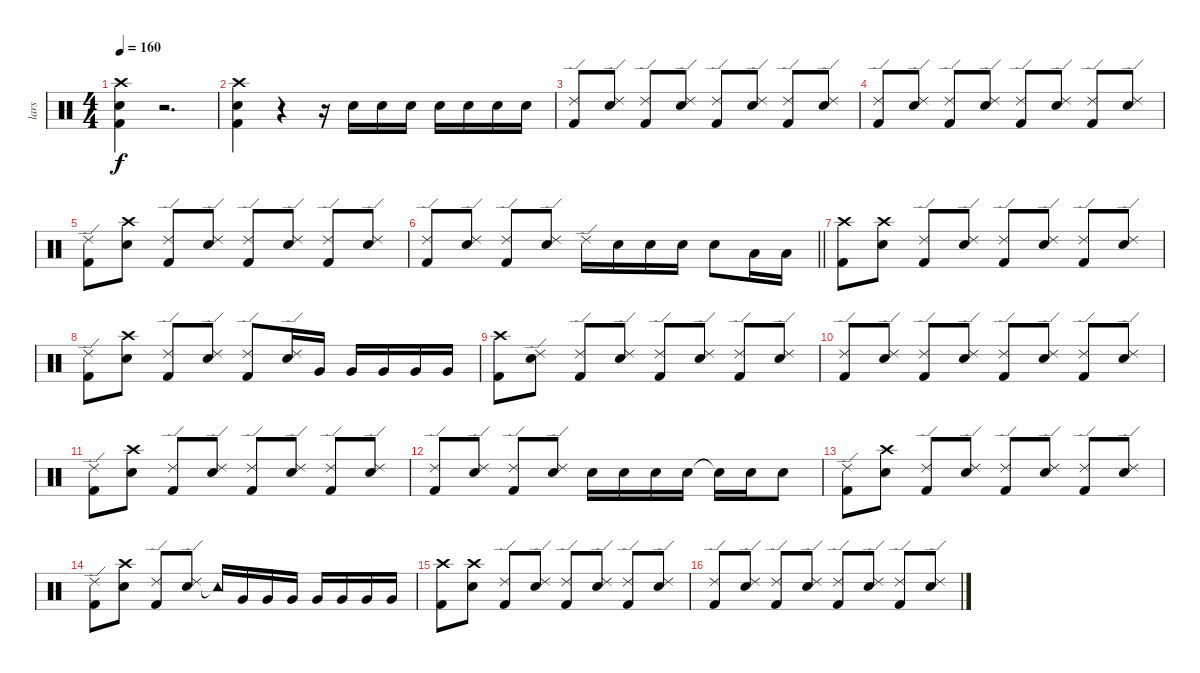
\track ("lars" "lars") {instrument percussion}
\staff {score}
\articulation defaults
\ts (4 4)
\tempo 160
\clef neutral
\ks c
("Kick (hit) 2" "Snare (hit) 2" "Crash high (hit)").4{dy f} r.2{d} |
("Kick (hit) 2" "Snare (hit) 2" "Crash high (hit)").4 r.4 r.16 "Electric Snare (hit)".16 "Electric Snare (hit)".16 "Electric Snare (hit)".16 "Electric Snare (hit)".16 "Electric Snare (hit)".16 "Electric Snare (hit)".16 "Electric Snare (hit)".16 |
("Ride (edge) 2" "Kick (hit) 2").8 ("Ride (edge) 2" "Electric Snare (hit)").8 ("Ride (edge) 2" "Kick (hit) 2").8 ("Ride (edge) 2" "Electric Snare (hit)").8 ("Ride (edge) 2" "Kick (hit) 2").8 ("Ride (edge) 2" "Electric Snare (hit)").8 ("Ride (edge) 2" "Kick (hit) 2").8 ("Ride (edge) 2" "Electric Snare (hit)").8 |
("Ride (edge) 2" "Kick (hit) 2").8 ("Ride (edge) 2" "Electric Snare (hit)").8 ("Ride (edge) 2" "Kick (hit) 2").8 ("Ride (edge) 2" "Electric Snare (hit)").8 ("Ride (edge) 2" "Kick (hit) 2").8 ("Ride (edge) 2" "Electric Snare (hit)").8 ("Ride (edge) 2" "Kick (hit) 2").8 ("Ride (edge) 2" "Electric Snare (hit)").8 |
("Ride (edge) 2" "Kick (hit) 2").8 ("Crash high (hit)" "Electric Snare (hit)").8 ("Ride (edge) 2" "Kick (hit) 2").8 ("Ride (edge) 2" "Electric Snare (hit)").8 ("Ride (edge) 2" "Kick (hit) 2").8 ("Ride (edge) 2" "Electric Snare (hit)").8 ("Ride (edge) 2" "Kick (hit) 2").8 ("Ride (edge) 2" "Electric Snare (hit)").8 |
\barLineRight lightlight
("Ride (edge) 2" "Kick (hit) 2").8 ("Ride (edge) 2" "Electric Snare (hit)").8 ("Ride (edge) 2" "Kick (hit) 2").8 ("Ride (edge) 2" "Electric Snare (hit)").8 "Ride (edge) 2".16 "Electric Snare (hit)".16 "Electric Snare (hit)".16 "Electric Snare (hit)".16 "Electric Snare (hit)".8 "Low Tom (hit)".16 "Low Tom (hit)".16 |
("Crash high (hit)" "Kick (hit) 2").8 ("Crash high (hit)" "Electric Snare (hit)").8 ("Ride (edge) 2" "Kick (hit) 2").8 ("Ride (edge) 2" "Electric Snare (hit)").8 ("Ride (edge) 2" "Kick (hit) 2").8 ("Ride (edge) 2" "Electric Snare (hit)").8 ("Ride (edge) 2" "Kick (hit) 2").8 ("Ride (edge) 2" "Electric Snare (hit)").8 |
("Ride (edge) 2" "Kick (hit) 2").8 ("Crash high (hit)" "Electric Snare (hit)").8 ("Ride (edge) 2" "Kick (hit) 2").8 ("Ride (edge) 2" "Electric Snare (hit)").8 ("Ride (edge) 2" "Kick (hit) 2").8 ("Ride (edge) 2" "Electric Snare (hit)").16 "Very Low Tom (hit)".16 "Very Low Tom (hit)".16 "Very Low Tom (hit)".16 "Very Low Tom (hit)".16 "Very Low Tom (hit)".16 |
("Crash high (hit)" "Kick (hit) 2").8 ("Ride (edge) 2" "Electric Snare (hit)").8 ("Ride (edge) 2" "Kick (hit) 2").8 ("Ride (edge) 2" "Electric Snare (hit)").8 ("Ride (edge) 2" "Kick (hit) 2").8 ("Ride (edge) 2" "Electric Snare (hit)").8 ("Ride (edge) 2" "Kick (hit) 2").8 ("Ride (edge) 2" "Electric Snare (hit)").8 |
("Ride (edge) 2" "Kick (hit) 2").8 ("Ride (edge) 2" "Electric Snare (hit)").8 ("Ride (edge) 2" "Kick (hit) 2").8 ("Ride (edge) 2" "Electric Snare (hit)").8 ("Ride (edge) 2" "Kick (hit) 2").8 ("Ride (edge) 2" "Electric Snare (hit)").8 ("Ride (edge) 2" "Kick (hit) 2").8 ("Ride (edge) 2" "Electric Snare (hit)").8 |
("Ride (edge) 2" "Kick (hit) 2").8 ("Crash high (hit)" "Electric Snare (hit)").8 ("Ride (edge) 2" "Kick (hit) 2").8 ("Ride (edge) 2" "Electric Snare (hit)").8 ("Ride (edge) 2" "Kick (hit) 2").8 ("Ride (edge) 2" "Electric Snare (hit)").8 ("Ride (edge) 2" "Kick (hit) 2").8 ("Ride (edge) 2" "Electric Snare (hit)").8 |
("Ride (edge) 2" "Kick (hit) 2").8 ("Ride (edge) 2" "Electric Snare (hit)").8 ("Ride (edge) 2" "Kick (hit) 2").8 ("Ride (edge) 2" "Electric Snare (hit)").8 "Electric Snare (hit)".16 "Electric Snare (hit)".16 "Electric Snare (hit)".16 "Electric Snare (hit)".16 "Snare (hit)"{t}.16 "Electric Snare (hit)".16 "Electric Snare (hit)".8 |
("Ride (edge) 2" "Kick (hit) 2").8 ("Crash high (hit)" "Electric Snare (hit)").8 ("Ride (edge) 2" "Kick (hit) 2").8 ("Ride (edge) 2" "Electric Snare (hit)").8 ("Ride (edge) 2" "Kick (hit) 2").8 ("Ride (edge) 2" "Electric Snare (hit)").8 ("Ride (edge) 2" "Kick (hit) 2").8 ("Ride (edge) 2" "Electric Snare (hit)").8 |
("Ride (edge) 2" "Kick (hit) 2").8 ("Crash high (hit)" "Electric Snare (hit)").8 ("Ride (edge) 2" "Kick (hit) 2").8 ("Ride (edge) 2" "Electric Snare (hit)").8 "Tambourine (hit)"{t}.16 "Very Low Tom (hit)".16 "Very Low Tom (hit)".16 "Very Low Tom (hit)".16 "Very Low Tom (hit)".16 "Very Low Tom (hit)".16 "Very Low Tom (hit)".16 "Very Low Tom (hit)".16 |
("Crash high (hit)" "Kick (hit) 2").8 ("Crash high (hit)" "Electric Snare (hit)").8 ("Ride (edge) 2" "Kick (hit) 2").8 ("Ride (edge) 2" "Electric Snare (hit)").8 ("Ride (edge) 2" "Kick (hit) 2").8 ("Ride (edge) 2" "Electric Snare (hit)").8 ("Ride (edge) 2" "Kick (hit) 2").8 ("Ride (edge) 2" "Electric Snare (hit)").8 |
("Ride (edge) 2" "Kick (hit) 2").8 ("Ride (edge) 2" "Electric Snare (hit)").8 ("Ride (edge) 2" "Kick (hit) 2").8 ("Ride (edge) 2" "Electric Snare (hit)").8 ("Ride (edge) 2" "Kick (hit) 2").8 ("Ride (edge) 2" "Electric Snare (hit)").8 ("Ride (edge) 2" "Kick (hit) 2").8 ("Ride (edge) 2" "Electric Snare (hit)").8
